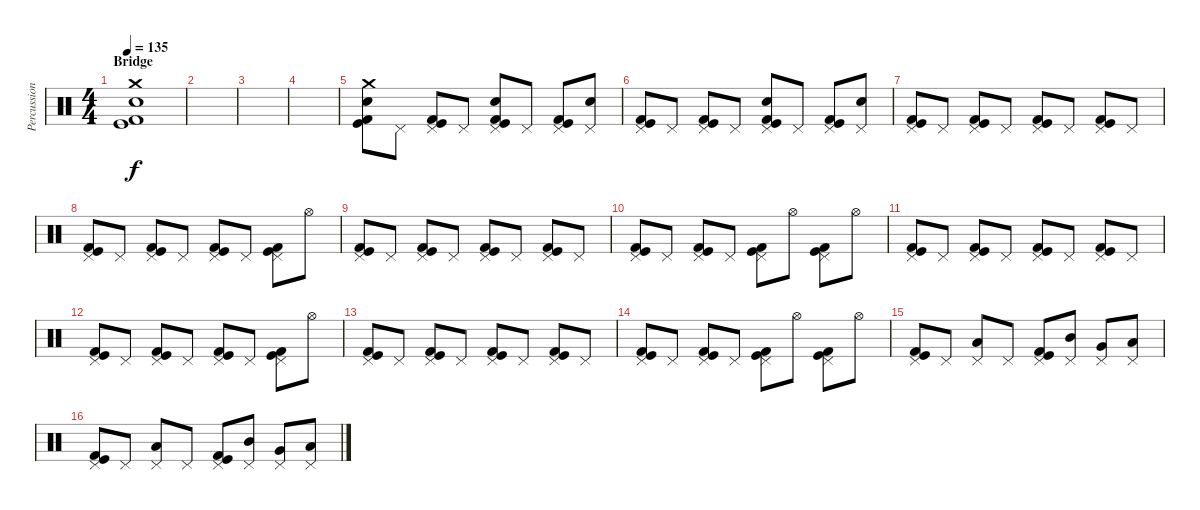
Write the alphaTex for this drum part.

\track ("Percussions" "Percussion") {instrument percussion}
\staff {score}
\articulation defaults
\ts (4 4)
\section ("" "Bridge")
\tempo 135
\clef neutral
\ks c
("Crash medium (hit)" "Electric Snare (hit)" "Kick (hit)" "Kick (hit) 2").1{dy f} |
|
|
|
("Crash medium (hit)" "Electric Snare (hit)" "Kick (hit)" "Kick (hit) 2").8 "Pedal Hi-Hat (hit)".8 ("Pedal Hi-Hat (hit)" "Kick (hit)" "Kick (hit) 2").8 "Pedal Hi-Hat (hit)".8 ("Pedal Hi-Hat (hit)" "Electric Snare (hit)" "Kick (hit) 2" "Kick (hit)").8 "Pedal Hi-Hat (hit)".8 ("Pedal Hi-Hat (hit)" "Kick (hit)" "Kick (hit) 2").8 ("Pedal Hi-Hat (hit)" "Electric Snare (hit)").8 |
("Pedal Hi-Hat (hit)" "Kick (hit) 2" "Kick (hit)").8 "Pedal Hi-Hat (hit)".8 ("Pedal Hi-Hat (hit)" "Kick (hit) 2" "Kick (hit)").8 "Pedal Hi-Hat (hit)".8 ("Pedal Hi-Hat (hit)" "Electric Snare (hit)" "Kick (hit) 2" "Kick (hit)").8 "Pedal Hi-Hat (hit)".8 ("Pedal Hi-Hat (hit)" "Kick (hit) 2" "Kick (hit)").8 ("Pedal Hi-Hat (hit)" "Electric Snare (hit)").8 |
("Pedal Hi-Hat (hit)" "Kick (hit)" "Kick (hit) 2").8 "Pedal Hi-Hat (hit)".8 ("Pedal Hi-Hat (hit)" "Kick (hit) 2" "Kick (hit)").8 "Pedal Hi-Hat (hit)".8 ("Pedal Hi-Hat (hit)" "Kick (hit)" "Kick (hit) 2").8 "Pedal Hi-Hat (hit)".8 ("Pedal Hi-Hat (hit)" "Kick (hit) 2" "Kick (hit)").8 "Pedal Hi-Hat (hit)".8 |
("Pedal Hi-Hat (hit)" "Kick (hit)" "Kick (hit) 2").8 "Pedal Hi-Hat (hit)".8 ("Pedal Hi-Hat (hit)" "Kick (hit) 2" "Kick (hit)").8 "Pedal Hi-Hat (hit)".8 ("Pedal Hi-Hat (hit)" "Kick (hit)" "Kick (hit) 2").8 "Pedal Hi-Hat (hit)".8 ("Pedal Hi-Hat (hit)" "Kick (hit) 2" "Kick (hit)").8 "Hi-Hat (open)".8 |
("Pedal Hi-Hat (hit)" "Kick (hit)" "Kick (hit) 2").8 "Pedal Hi-Hat (hit)".8 ("Pedal Hi-Hat (hit)" "Kick (hit) 2" "Kick (hit)").8 "Pedal Hi-Hat (hit)".8 ("Pedal Hi-Hat (hit)" "Kick (hit)" "Kick (hit) 2").8 "Pedal Hi-Hat (hit)".8 ("Pedal Hi-Hat (hit)" "Kick (hit) 2" "Kick (hit)").8 "Pedal Hi-Hat (hit)".8 |
("Pedal Hi-Hat (hit)" "Kick (hit)" "Kick (hit) 2").8 "Pedal Hi-Hat (hit)".8 ("Pedal Hi-Hat (hit)" "Kick (hit) 2" "Kick (hit)").8 "Pedal Hi-Hat (hit)".8 ("Pedal Hi-Hat (hit)" "Kick (hit)" "Kick (hit) 2").8 "Hi-Hat (open)".8 ("Pedal Hi-Hat (hit)" "Kick (hit) 2" "Kick (hit)").8 "Hi-Hat (open)".8 |
("Pedal Hi-Hat (hit)" "Kick (hit)" "Kick (hit) 2").8 "Pedal Hi-Hat (hit)".8 ("Pedal Hi-Hat (hit)" "Kick (hit) 2" "Kick (hit)").8 "Pedal Hi-Hat (hit)".8 ("Pedal Hi-Hat (hit)" "Kick (hit)" "Kick (hit) 2").8 "Pedal Hi-Hat (hit)".8 ("Pedal Hi-Hat (hit)" "Kick (hit) 2" "Kick (hit)").8 "Pedal Hi-Hat (hit)".8 |
("Pedal Hi-Hat (hit)" "Kick (hit)" "Kick (hit) 2").8 "Pedal Hi-Hat (hit)".8 ("Pedal Hi-Hat (hit)" "Kick (hit) 2" "Kick (hit)").8 "Pedal Hi-Hat (hit)".8 ("Pedal Hi-Hat (hit)" "Kick (hit)" "Kick (hit) 2").8 "Pedal Hi-Hat (hit)".8 ("Pedal Hi-Hat (hit)" "Kick (hit) 2" "Kick (hit)").8 "Hi-Hat (open)".8 |
("Pedal Hi-Hat (hit)" "Kick (hit)" "Kick (hit) 2").8 "Pedal Hi-Hat (hit)".8 ("Pedal Hi-Hat (hit)" "Kick (hit) 2" "Kick (hit)").8 "Pedal Hi-Hat (hit)".8 ("Pedal Hi-Hat (hit)" "Kick (hit)" "Kick (hit) 2").8 "Pedal Hi-Hat (hit)".8 ("Pedal Hi-Hat (hit)" "Kick (hit) 2" "Kick (hit)").8 "Pedal Hi-Hat (hit)".8 |
("Pedal Hi-Hat (hit)" "Kick (hit)" "Kick (hit) 2").8 "Pedal Hi-Hat (hit)".8 ("Pedal Hi-Hat (hit)" "Kick (hit) 2" "Kick (hit)").8 "Pedal Hi-Hat (hit)".8 ("Pedal Hi-Hat (hit)" "Kick (hit)" "Kick (hit) 2").8 "Hi-Hat (open)".8 ("Pedal Hi-Hat (hit)" "Kick (hit) 2" "Kick (hit)").8 "Hi-Hat (open)".8 |
("Pedal Hi-Hat (hit)" "Kick (hit)" "Kick (hit) 2").8 "Pedal Hi-Hat (hit)".8 ("Pedal Hi-Hat (hit)" "Low Tom (hit)").8 "Pedal Hi-Hat (hit)".8 ("Pedal Hi-Hat (hit)" "Kick (hit)" "Kick (hit) 2").8 ("Pedal Hi-Hat (hit)" "Mid Tom (hit)").8 ("Pedal Hi-Hat (hit)" "Very Low Tom (hit)").8 ("Pedal Hi-Hat (hit)" "Low Floor Tom (hit)").8 |
("Pedal Hi-Hat (hit)" "Kick (hit)" "Kick (hit) 2").8 "Pedal Hi-Hat (hit)".8 ("Pedal Hi-Hat (hit)" "Low Tom (hit)").8 "Pedal Hi-Hat (hit)".8 ("Pedal Hi-Hat (hit)" "Kick (hit)" "Kick (hit) 2").8 ("Pedal Hi-Hat (hit)" "Mid Tom (hit)").8 ("Pedal Hi-Hat (hit)" "Very Low Tom (hit)").8 ("Pedal Hi-Hat (hit)" "Low Floor Tom (hit)").8
